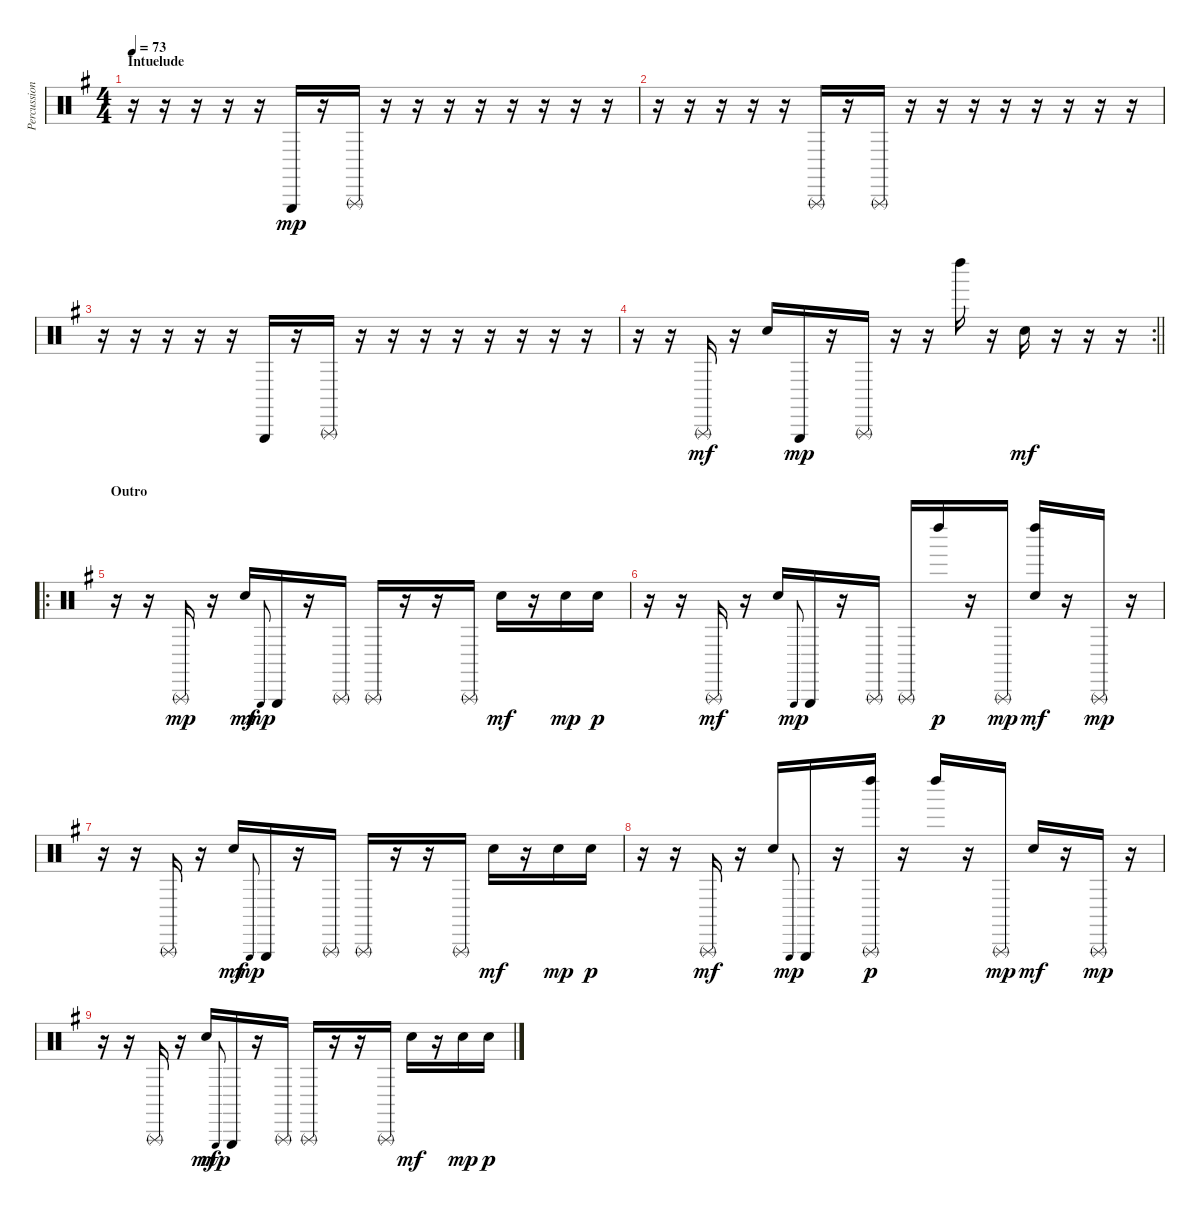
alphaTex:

\track ("Percussion" "Percussion") {instrument percussion}
\staff {score}
\articulation defaults
\ts (4 4)
\section ("" "Intuelude")
\tempo 73
\clef neutral
\ks g
r.16{dy mp} r.16 r.16 r.16 r.16 "Triangle (hit)".16 r.16 "Triangle (rnute)".16 r.16 r.16 r.16 r.16 r.16 r.16 r.16 r.16 |
r.16 r.16 r.16 r.16 r.16 "Triangle (rnute)".16 r.16 "Triangle (rnute)".16 r.16 r.16 r.16 r.16 r.16 r.16 r.16 r.16 |
r.16 r.16 r.16 r.16 r.16 "Triangle (hit)".16 r.16 "Triangle (rnute)".16 r.16 r.16 r.16 r.16 r.16 r.16 r.16 r.16 |
\rc 2
\barLineRight lightlight
r.16 r.16 "Triangle (rnute)".16{dy mf} r.16 "Hand Clap (hit)".16 "Triangle (hit)".16{dy mp} r.16 "Triangle (rnute)".16 r.16 r.16 "Left Maraca (hit)".16 r.16 "Hand Clap (hit)".16{dy mf} r.16 r.16 r.16 |
\ro
\section ("" "Outro")
r.16 r.16 "Triangle (rnute)".16{dy mp} r.16 "Hand Clap (hit)".16{dy mf} "Triangle (hit)".8{gr onbeat dy mp} "Triangle (hit)".16 r.16 "Triangle (rnute)".16 "Triangle (rnute)".16 r.16 r.16 "Triangle (rnute)".16 "Hand Clap (hit)".16{dy mf} r.16 "Snare (hit) 2".16{dy mp} "Snare (hit) 2".16{dy p} |
r.16 r.16 "Triangle (rnute)".16{dy mf} r.16 "Hand Clap (hit)".16 "Triangle (hit)".8{gr onbeat dy mp} "Triangle (hit)".16 r.16 "Triangle (rnute)".16 "Triangle (rnute)".16 "Left Maraca (hit)".16{dy p} r.16 "Triangle (rnute)".16{dy mp} ("Left Maraca (hit)" "Hand Clap (hit)").16{dy mf} r.16 "Triangle (rnute)".16{dy mp} r.16 |
r.16 r.16 "Triangle (rnute)".16 r.16 "Hand Clap (hit)".16{dy mf} "Triangle (hit)".8{gr onbeat dy mp} "Triangle (hit)".16 r.16 "Triangle (rnute)".16 "Triangle (rnute)".16 r.16 r.16 "Triangle (rnute)".16 "Hand Clap (hit)".16{dy mf} r.16 "Snare (hit) 2".16{dy mp} "Snare (hit) 2".16{dy p} |
r.16 r.16 "Triangle (rnute)".16{dy mf} r.16 "Hand Clap (hit)".16 "Triangle (hit)".8{gr onbeat dy mp} "Triangle (hit)".16 r.16 ("Triangle (rnute)" "Left Maraca (hit)").16{dy p} r.16 "Left Maraca (hit)".16 r.16 "Triangle (rnute)".16{dy mp} "Hand Clap (hit)".16{dy mf} r.16 "Triangle (rnute)".16{dy mp} r.16 |
r.16 r.16 "Triangle (rnute)".16 r.16 "Hand Clap (hit)".16{dy mf} "Triangle (hit)".8{gr onbeat dy mp} "Triangle (hit)".16 r.16 "Triangle (rnute)".16 "Triangle (rnute)".16 r.16 r.16 "Triangle (rnute)".16 "Hand Clap (hit)".16{dy mf} r.16 "Snare (hit) 2".16{dy mp} "Snare (hit) 2".16{dy p}
